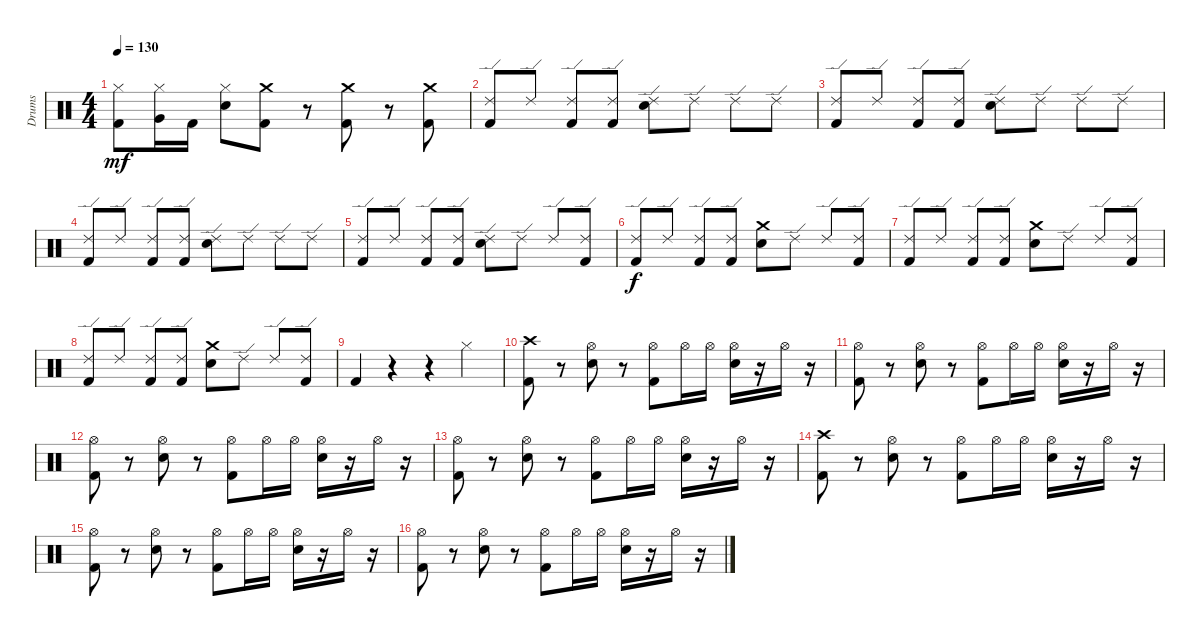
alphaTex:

\track ("Drums" "Drums") {instrument percussion}
\staff {score}
\articulation defaults
\ts (4 4)
\tempo 130
\clef neutral
\ks c
("Hi-Hat (closed)" "Kick (hit) 2").8{dy mf} ("Hi-Hat (closed)" "Very Low Tom (hit)").16 "Kick (hit) 2".16 ("Hi-Hat (closed)" "Snare (hit) 2").8 ("Crash medium (hit)" "Kick (hit) 2").8 r.8 ("Crash medium (hit)" "Kick (hit) 2").8 r.8 ("Crash medium (hit)" "Kick (hit) 2").8 |
("Ride (edge) 2" "Kick (hit) 2").8 "Ride (edge) 2".8 ("Ride (edge) 2" "Kick (hit) 2").8 ("Ride (edge) 2" "Kick (hit) 2").8 ("Ride (edge) 2" "Snare (hit) 2").8 "Ride (edge) 2".8 "Ride (edge) 2".8 "Ride (edge) 2".8 |
("Ride (edge) 2" "Kick (hit) 2").8 "Ride (edge) 2".8 ("Ride (edge) 2" "Kick (hit) 2").8 ("Ride (edge) 2" "Kick (hit) 2").8 ("Ride (edge) 2" "Snare (hit) 2").8 "Ride (edge) 2".8 "Ride (edge) 2".8 "Ride (edge) 2".8 |
("Ride (edge) 2" "Kick (hit) 2").8 "Ride (edge) 2".8 ("Ride (edge) 2" "Kick (hit) 2").8 ("Ride (edge) 2" "Kick (hit) 2").8 ("Ride (edge) 2" "Snare (hit) 2").8 "Ride (edge) 2".8 "Ride (edge) 2".8 "Ride (edge) 2".8 |
("Ride (edge) 2" "Kick (hit) 2").8 "Ride (edge) 2".8 ("Ride (edge) 2" "Kick (hit) 2").8 ("Ride (edge) 2" "Kick (hit) 2").8 ("Ride (edge) 2" "Snare (hit) 2").8 "Ride (edge) 2".8 "Ride (edge) 2".8 ("Ride (edge) 2" "Kick (hit) 2").8 |
("Ride (edge) 2" "Kick (hit) 2").8{dy f} "Ride (edge) 2".8 ("Ride (edge) 2" "Kick (hit) 2").8 ("Ride (edge) 2" "Kick (hit) 2").8 ("Crash medium (hit)" "Snare (hit) 2").8 "Ride (edge) 2".8 "Ride (edge) 2".8 ("Ride (edge) 2" "Kick (hit) 2").8 |
("Ride (edge) 2" "Kick (hit) 2").8 "Ride (edge) 2".8 ("Ride (edge) 2" "Kick (hit) 2").8 ("Ride (edge) 2" "Kick (hit) 2").8 ("Crash medium (hit)" "Snare (hit) 2").8 "Ride (edge) 2".8 "Ride (edge) 2".8 ("Ride (edge) 2" "Kick (hit) 2").8 |
("Ride (edge) 2" "Kick (hit) 2").8 "Ride (edge) 2".8 ("Ride (edge) 2" "Kick (hit) 2").8 ("Ride (edge) 2" "Kick (hit) 2").8 ("Crash medium (hit)" "Snare (hit) 2").8 "Ride (edge) 2".8 "Ride (edge) 2".8 ("Ride (edge) 2" "Kick (hit) 2").8 |
"Kick (hit) 2".4 r.4 r.4 "Hi-Hat (closed)".4 |
("Crash high (hit)" "Kick (hit) 2").8 r.8 ("Hi-Hat (open)" "Snare (hit) 2").8 r.8 ("Hi-Hat (open)" "Kick (hit) 2").8 "Hi-Hat (open)".16 "Hi-Hat (open)".16 ("Hi-Hat (open)" "Snare (hit) 2").16 r.16 "Hi-Hat (open)".16 r.16 |
("Hi-Hat (open)" "Kick (hit) 2").8 r.8 ("Hi-Hat (open)" "Snare (hit) 2").8 r.8 ("Hi-Hat (open)" "Kick (hit) 2").8 "Hi-Hat (open)".16 "Hi-Hat (open)".16 ("Hi-Hat (open)" "Snare (hit) 2").16 r.16 "Hi-Hat (open)".16 r.16 |
("Hi-Hat (open)" "Kick (hit) 2").8 r.8 ("Hi-Hat (open)" "Snare (hit) 2").8 r.8 ("Hi-Hat (open)" "Kick (hit) 2").8 "Hi-Hat (open)".16 "Hi-Hat (open)".16 ("Hi-Hat (open)" "Snare (hit) 2").16 r.16 "Hi-Hat (open)".16 r.16 |
("Hi-Hat (open)" "Kick (hit) 2").8 r.8 ("Hi-Hat (open)" "Snare (hit) 2").8 r.8 ("Hi-Hat (open)" "Kick (hit) 2").8 "Hi-Hat (open)".16 "Hi-Hat (open)".16 ("Hi-Hat (open)" "Snare (hit) 2").16 r.16 "Hi-Hat (open)".16 r.16 |
("Crash high (hit)" "Kick (hit) 2").8 r.8 ("Hi-Hat (open)" "Snare (hit) 2").8 r.8 ("Hi-Hat (open)" "Kick (hit) 2").8 "Hi-Hat (open)".16 "Hi-Hat (open)".16 ("Hi-Hat (open)" "Snare (hit) 2").16 r.16 "Hi-Hat (open)".16 r.16 |
("Hi-Hat (open)" "Kick (hit) 2").8 r.8 ("Hi-Hat (open)" "Snare (hit) 2").8 r.8 ("Hi-Hat (open)" "Kick (hit) 2").8 "Hi-Hat (open)".16 "Hi-Hat (open)".16 ("Hi-Hat (open)" "Snare (hit) 2").16 r.16 "Hi-Hat (open)".16 r.16 |
("Hi-Hat (open)" "Kick (hit) 2").8 r.8 ("Hi-Hat (open)" "Snare (hit) 2").8 r.8 ("Hi-Hat (open)" "Kick (hit) 2").8 "Hi-Hat (open)".16 "Hi-Hat (open)".16 ("Hi-Hat (open)" "Snare (hit) 2").16 r.16 "Hi-Hat (open)".16 r.16
